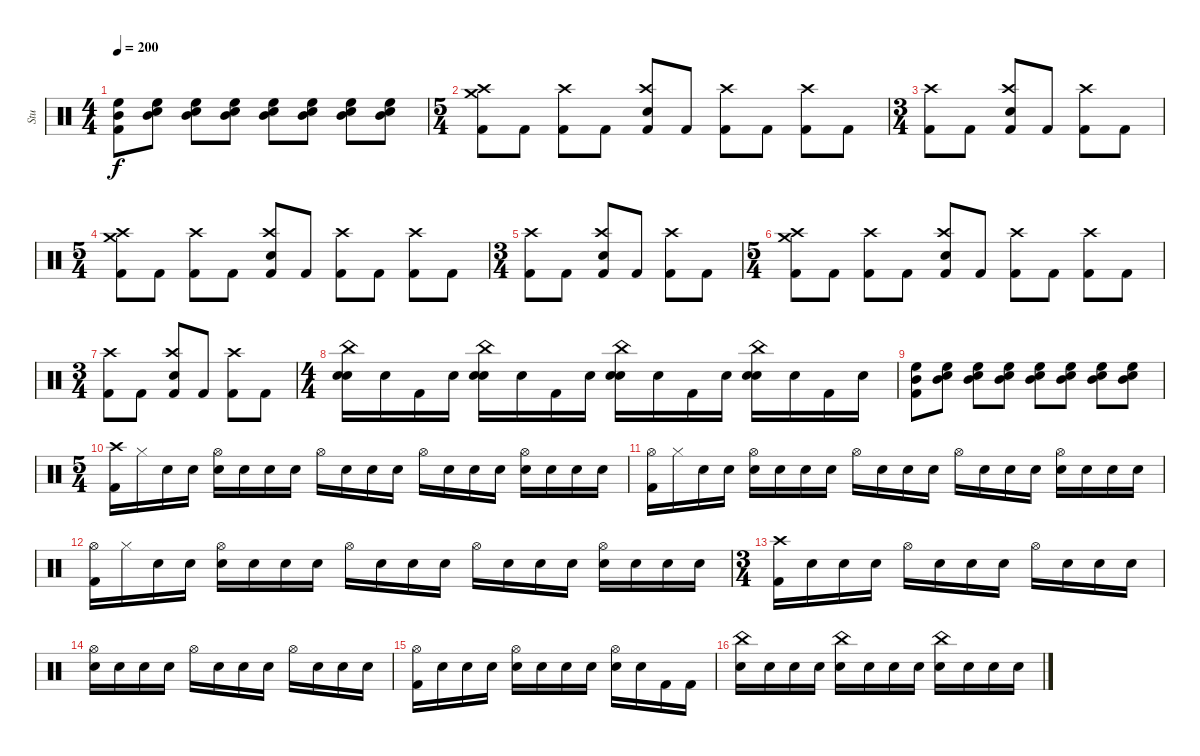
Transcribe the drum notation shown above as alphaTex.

\track ("Stu" "Stu") {instrument percussion}
\staff {score}
\articulation defaults
\ts (4 4)
\tempo 200
\clef neutral
\ks c
("High Floor Tom (hit)" "Mid Tom (hit)" "Kick (hit) 2"{x}).8{dy f} ("High Floor Tom (hit)" "Mid Tom (hit)" "Snare (hit)"{x}).8 ("High Floor Tom (hit)" "Mid Tom (hit)" "Snare (hit)"{x}).8 ("High Floor Tom (hit)" "Mid Tom (hit)" "Snare (hit)"{x}).8 ("High Floor Tom (hit)" "Mid Tom (hit)" "Snare (hit)"{x}).8 ("High Floor Tom (hit)" "Mid Tom (hit)" "Snare (hit)"{x}).8 ("High Floor Tom (hit)" "Mid Tom (hit)" "Snare (hit)"{x}).8 ("High Floor Tom (hit)" "Mid Tom (hit)" "Snare (hit)"{x}).8 |
\ts (5 4)
("Crash medium (hit)" "Crash high (hit)" "Kick (hit) 2").8 "Kick (hit) 2".8 ("Crash high (hit)" "Kick (hit) 2").8 "Kick (hit) 2".8 ("Crash high (hit)" "Electric Snare (hit)" "Kick (hit) 2").8 "Kick (hit) 2".8 ("Crash high (hit)" "Kick (hit) 2").8 "Kick (hit) 2".8 ("Crash high (hit)" "Kick (hit) 2").8 "Kick (hit) 2".8 |
\ts (3 4)
("Crash high (hit)" "Kick (hit) 2").8 "Kick (hit) 2".8 ("Crash high (hit)" "Electric Snare (hit)" "Kick (hit) 2").8 "Kick (hit) 2".8 ("Crash high (hit)" "Kick (hit) 2").8 "Kick (hit) 2".8 |
\ts (5 4)
("Crash medium (hit)" "Crash high (hit)" "Kick (hit) 2").8 "Kick (hit) 2".8 ("Crash high (hit)" "Kick (hit) 2").8 "Kick (hit) 2".8 ("Crash high (hit)" "Electric Snare (hit)" "Kick (hit) 2").8 "Kick (hit) 2".8 ("Crash high (hit)" "Kick (hit) 2").8 "Kick (hit) 2".8 ("Crash high (hit)" "Kick (hit) 2").8 "Kick (hit) 2".8 |
\ts (3 4)
("Crash high (hit)" "Kick (hit) 2").8 "Kick (hit) 2".8 ("Crash high (hit)" "Electric Snare (hit)" "Kick (hit) 2").8 "Kick (hit) 2".8 ("Crash high (hit)" "Kick (hit) 2").8 "Kick (hit) 2".8 |
\ts (5 4)
("Crash medium (hit)" "Crash high (hit)" "Kick (hit) 2").8 "Kick (hit) 2".8 ("Crash high (hit)" "Kick (hit) 2").8 "Kick (hit) 2".8 ("Crash high (hit)" "Electric Snare (hit)" "Kick (hit) 2").8 "Kick (hit) 2".8 ("Crash high (hit)" "Kick (hit) 2").8 "Kick (hit) 2".8 ("Crash high (hit)" "Kick (hit) 2").8 "Kick (hit) 2".8 |
\ts (3 4)
("Crash high (hit)" "Kick (hit) 2").8 "Kick (hit) 2".8 ("Crash high (hit)" "Electric Snare (hit)" "Kick (hit) 2").8 "Kick (hit) 2".8 ("Crash high (hit)" "Kick (hit) 2").8 "Kick (hit) 2".8 |
\ts (4 4)
("China (hit)" "Electric Snare (hit)" "Snare (hit)"{x}).16 "Snare (hit)"{x}.16 "Kick (hit) 2".16 "Snare (hit)"{x}.16 ("China (hit)" "Electric Snare (hit)" "Snare (hit)"{x}).16 "Snare (hit)"{x}.16 "Kick (hit) 2".16 "Snare (hit)"{x}.16 ("China (hit)" "Electric Snare (hit)" "Snare (hit)"{x}).16 "Snare (hit)"{x}.16 "Kick (hit) 2".16 "Snare (hit)"{x}.16 ("China (hit)" "Electric Snare (hit)" "Snare (hit)"{x}).16 "Snare (hit)"{x}.16 "Kick (hit) 2".16 "Snare (hit)"{x}.16 |
("High Floor Tom (hit)" "Mid Tom (hit)" "Kick (hit) 2"{x}).8 ("High Floor Tom (hit)" "Mid Tom (hit)" "Snare (hit)"{x}).8 ("High Floor Tom (hit)" "Mid Tom (hit)" "Snare (hit)"{x}).8 ("High Floor Tom (hit)" "Mid Tom (hit)" "Snare (hit)"{x}).8 ("High Floor Tom (hit)" "Mid Tom (hit)" "Snare (hit)"{x}).8 ("High Floor Tom (hit)" "Mid Tom (hit)" "Snare (hit)"{x}).8 ("High Floor Tom (hit)" "Mid Tom (hit)" "Snare (hit)"{x}).8 ("High Floor Tom (hit)" "Mid Tom (hit)" "Snare (hit)"{x}).8 |
\ts (5 4)
("Crash high (hit)" "Kick (hit) 2").16 "Hi-Hat (closed)"{x}.16 "Snare (hit)"{x}.16 "Snare (hit)"{x}.16 ("Electric Snare (hit)"{x} "Hi-Hat (open)").16 "Snare (hit)"{x}.16 "Snare (hit)"{x}.16 "Snare (hit)"{x}.16 "Hi-Hat (open)".16 "Snare (hit)"{x}.16 "Snare (hit)"{x}.16 "Snare (hit)"{x}.16 "Hi-Hat (open)".16 "Snare (hit)"{x}.16 "Snare (hit)"{x}.16 "Snare (hit)"{x}.16 ("Electric Snare (hit)" "Hi-Hat (open)").16 "Snare (hit)"{x}.16 "Snare (hit)"{x}.16 "Snare (hit)"{x}.16 |
("Hi-Hat (open)" "Kick (hit) 2").16 "Hi-Hat (closed)"{x}.16 "Snare (hit)"{x}.16 "Snare (hit)"{x}.16 ("Electric Snare (hit)"{x} "Hi-Hat (open)").16 "Snare (hit)"{x}.16 "Snare (hit)"{x}.16 "Snare (hit)"{x}.16 "Hi-Hat (open)".16 "Snare (hit)"{x}.16 "Snare (hit)"{x}.16 "Snare (hit)"{x}.16 "Hi-Hat (open)".16 "Snare (hit)"{x}.16 "Snare (hit)"{x}.16 "Snare (hit)"{x}.16 ("Electric Snare (hit)" "Hi-Hat (open)").16 "Snare (hit)"{x}.16 "Snare (hit)"{x}.16 "Snare (hit)"{x}.16 |
("Hi-Hat (open)" "Kick (hit) 2").16 "Hi-Hat (closed)"{x}.16 "Snare (hit)"{x}.16 "Snare (hit)"{x}.16 ("Electric Snare (hit)"{x} "Hi-Hat (open)").16 "Snare (hit)"{x}.16 "Snare (hit)"{x}.16 "Snare (hit)"{x}.16 "Hi-Hat (open)".16 "Snare (hit)"{x}.16 "Snare (hit)"{x}.16 "Snare (hit)"{x}.16 "Hi-Hat (open)".16 "Snare (hit)"{x}.16 "Snare (hit)"{x}.16 "Snare (hit)"{x}.16 ("Electric Snare (hit)" "Hi-Hat (open)").16 "Snare (hit)"{x}.16 "Snare (hit)"{x}.16 "Snare (hit)"{x}.16 |
\ts (3 4)
("Crash high (hit)" "Kick (hit) 2").16 "Snare (hit)"{x}.16 "Snare (hit)"{x}.16 "Snare (hit)"{x}.16 "Hi-Hat (open)".16 "Snare (hit)"{x}.16 "Snare (hit)"{x}.16 "Snare (hit)"{x}.16 "Hi-Hat (open)".16 "Snare (hit)"{x}.16 "Snare (hit)"{x}.16 "Snare (hit)"{x}.16 |
("Electric Snare (hit)" "Hi-Hat (open)").16 "Snare (hit)"{x}.16 "Snare (hit)"{x}.16 "Snare (hit)"{x}.16 "Hi-Hat (open)".16 "Snare (hit)"{x}.16 "Snare (hit)"{x}.16 "Snare (hit)"{x}.16 "Hi-Hat (open)".16 "Snare (hit)"{x}.16 "Snare (hit)"{x}.16 "Snare (hit)"{x}.16 |
("Hi-Hat (open)" "Kick (hit) 2").16 "Snare (hit)"{x}.16 "Snare (hit)"{x}.16 "Snare (hit)"{x}.16 ("Hi-Hat (open)" "Snare (hit)"{x}).16 "Snare (hit)"{x}.16 "Snare (hit)"{x}.16 "Snare (hit)"{x}.16 ("Hi-Hat (open)" "Snare (hit)"{x}).16 "Snare (hit)"{x}.16 "Kick (hit) 2".16 "Kick (hit) 2".16 |
("China (hit)" "Electric Snare (hit)").16 "Snare (hit)"{x}.16 "Snare (hit)"{x}.16 "Snare (hit)"{x}.16 ("China (hit)" "Electric Snare (hit)").16 "Snare (hit)"{x}.16 "Snare (hit)"{x}.16 "Snare (hit)"{x}.16 ("China (hit)" "Electric Snare (hit)").16 "Snare (hit)"{x}.16 "Snare (hit)"{x}.16 "Snare (hit)"{x}.16
